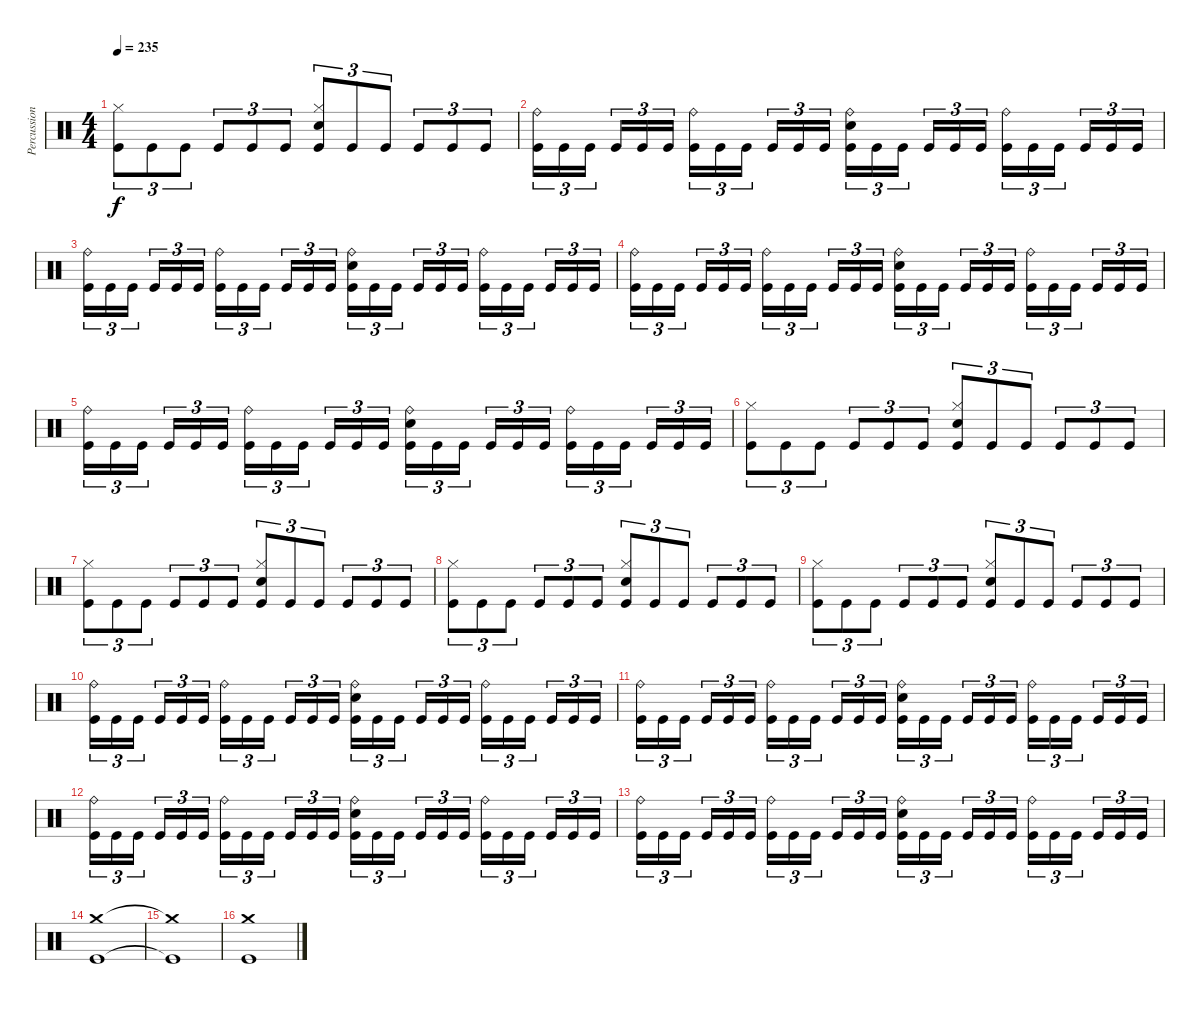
\track ("Percussion" "Percussion") {instrument percussion}
\staff {score}
\articulation defaults
\ts (4 4)
\tempo 235
\clef neutral
\ks c
("Kick (hit)" "Hi-Hat (closed)").8{tu (3 2) dy f} "Kick (hit)".8{tu (3 2)} "Kick (hit)".8{tu (3 2)} "Kick (hit)".8{tu (3 2)} "Kick (hit)".8{tu (3 2)} "Kick (hit)".8{tu (3 2)} ("Kick (hit)" "Hi-Hat (closed)" "Snare (hit) 2").8{tu (3 2)} "Kick (hit)".8{tu (3 2)} "Kick (hit)".8{tu (3 2)} "Kick (hit)".8{tu (3 2)} "Kick (hit)".8{tu (3 2)} "Kick (hit)".8{tu (3 2)} |
("Kick (hit)" "Ride (bell)").16{tu (3 2)} "Kick (hit)".16{tu (3 2)} "Kick (hit)".16{tu (3 2) beam splitsecondary} "Kick (hit)".16{tu (3 2)} "Kick (hit)".16{tu (3 2)} "Kick (hit)".16{tu (3 2)} ("Kick (hit)" "Ride (bell)").16{tu (3 2)} "Kick (hit)".16{tu (3 2)} "Kick (hit)".16{tu (3 2) beam splitsecondary} "Kick (hit)".16{tu (3 2)} "Kick (hit)".16{tu (3 2)} "Kick (hit)".16{tu (3 2)} ("Kick (hit)" "Ride (bell)" "Snare (hit) 2").16{tu (3 2)} "Kick (hit)".16{tu (3 2)} "Kick (hit)".16{tu (3 2) beam splitsecondary} "Kick (hit)".16{tu (3 2)} "Kick (hit)".16{tu (3 2)} "Kick (hit)".16{tu (3 2)} ("Kick (hit)" "Ride (bell)").16{tu (3 2)} "Kick (hit)".16{tu (3 2)} "Kick (hit)".16{tu (3 2) beam splitsecondary} "Kick (hit)".16{tu (3 2)} "Kick (hit)".16{tu (3 2)} "Kick (hit)".16{tu (3 2)} |
("Kick (hit)" "Ride (bell)").16{tu (3 2)} "Kick (hit)".16{tu (3 2)} "Kick (hit)".16{tu (3 2) beam splitsecondary} "Kick (hit)".16{tu (3 2)} "Kick (hit)".16{tu (3 2)} "Kick (hit)".16{tu (3 2)} ("Kick (hit)" "Ride (bell)").16{tu (3 2)} "Kick (hit)".16{tu (3 2)} "Kick (hit)".16{tu (3 2) beam splitsecondary} "Kick (hit)".16{tu (3 2)} "Kick (hit)".16{tu (3 2)} "Kick (hit)".16{tu (3 2)} ("Kick (hit)" "Ride (bell)" "Snare (hit) 2").16{tu (3 2)} "Kick (hit)".16{tu (3 2)} "Kick (hit)".16{tu (3 2) beam splitsecondary} "Kick (hit)".16{tu (3 2)} "Kick (hit)".16{tu (3 2)} "Kick (hit)".16{tu (3 2)} ("Kick (hit)" "Ride (bell)").16{tu (3 2)} "Kick (hit)".16{tu (3 2)} "Kick (hit)".16{tu (3 2) beam splitsecondary} "Kick (hit)".16{tu (3 2)} "Kick (hit)".16{tu (3 2)} "Kick (hit)".16{tu (3 2)} |
("Kick (hit)" "Ride (bell)").16{tu (3 2)} "Kick (hit)".16{tu (3 2)} "Kick (hit)".16{tu (3 2) beam splitsecondary} "Kick (hit)".16{tu (3 2)} "Kick (hit)".16{tu (3 2)} "Kick (hit)".16{tu (3 2)} ("Kick (hit)" "Ride (bell)").16{tu (3 2)} "Kick (hit)".16{tu (3 2)} "Kick (hit)".16{tu (3 2) beam splitsecondary} "Kick (hit)".16{tu (3 2)} "Kick (hit)".16{tu (3 2)} "Kick (hit)".16{tu (3 2)} ("Kick (hit)" "Ride (bell)" "Snare (hit) 2").16{tu (3 2)} "Kick (hit)".16{tu (3 2)} "Kick (hit)".16{tu (3 2) beam splitsecondary} "Kick (hit)".16{tu (3 2)} "Kick (hit)".16{tu (3 2)} "Kick (hit)".16{tu (3 2)} ("Kick (hit)" "Ride (bell)").16{tu (3 2)} "Kick (hit)".16{tu (3 2)} "Kick (hit)".16{tu (3 2) beam splitsecondary} "Kick (hit)".16{tu (3 2)} "Kick (hit)".16{tu (3 2)} "Kick (hit)".16{tu (3 2)} |
("Kick (hit)" "Ride (bell)").16{tu (3 2)} "Kick (hit)".16{tu (3 2)} "Kick (hit)".16{tu (3 2) beam splitsecondary} "Kick (hit)".16{tu (3 2)} "Kick (hit)".16{tu (3 2)} "Kick (hit)".16{tu (3 2)} ("Kick (hit)" "Ride (bell)").16{tu (3 2)} "Kick (hit)".16{tu (3 2)} "Kick (hit)".16{tu (3 2) beam splitsecondary} "Kick (hit)".16{tu (3 2)} "Kick (hit)".16{tu (3 2)} "Kick (hit)".16{tu (3 2)} ("Kick (hit)" "Ride (bell)" "Snare (hit) 2").16{tu (3 2)} "Kick (hit)".16{tu (3 2)} "Kick (hit)".16{tu (3 2) beam splitsecondary} "Kick (hit)".16{tu (3 2)} "Kick (hit)".16{tu (3 2)} "Kick (hit)".16{tu (3 2)} ("Kick (hit)" "Ride (bell)").16{tu (3 2)} "Kick (hit)".16{tu (3 2)} "Kick (hit)".16{tu (3 2) beam splitsecondary} "Kick (hit)".16{tu (3 2)} "Kick (hit)".16{tu (3 2)} "Kick (hit)".16{tu (3 2)} |
("Kick (hit)" "Hi-Hat (closed)").8{tu (3 2)} "Kick (hit)".8{tu (3 2)} "Kick (hit)".8{tu (3 2)} "Kick (hit)".8{tu (3 2)} "Kick (hit)".8{tu (3 2)} "Kick (hit)".8{tu (3 2)} ("Kick (hit)" "Hi-Hat (closed)" "Snare (hit) 2").8{tu (3 2)} "Kick (hit)".8{tu (3 2)} "Kick (hit)".8{tu (3 2)} "Kick (hit)".8{tu (3 2)} "Kick (hit)".8{tu (3 2)} "Kick (hit)".8{tu (3 2)} |
("Kick (hit)" "Hi-Hat (closed)").8{tu (3 2)} "Kick (hit)".8{tu (3 2)} "Kick (hit)".8{tu (3 2)} "Kick (hit)".8{tu (3 2)} "Kick (hit)".8{tu (3 2)} "Kick (hit)".8{tu (3 2)} ("Kick (hit)" "Hi-Hat (closed)" "Snare (hit) 2").8{tu (3 2)} "Kick (hit)".8{tu (3 2)} "Kick (hit)".8{tu (3 2)} "Kick (hit)".8{tu (3 2)} "Kick (hit)".8{tu (3 2)} "Kick (hit)".8{tu (3 2)} |
("Kick (hit)" "Hi-Hat (closed)").8{tu (3 2)} "Kick (hit)".8{tu (3 2)} "Kick (hit)".8{tu (3 2)} "Kick (hit)".8{tu (3 2)} "Kick (hit)".8{tu (3 2)} "Kick (hit)".8{tu (3 2)} ("Kick (hit)" "Hi-Hat (closed)" "Snare (hit) 2").8{tu (3 2)} "Kick (hit)".8{tu (3 2)} "Kick (hit)".8{tu (3 2)} "Kick (hit)".8{tu (3 2)} "Kick (hit)".8{tu (3 2)} "Kick (hit)".8{tu (3 2)} |
("Kick (hit)" "Hi-Hat (closed)").8{tu (3 2)} "Kick (hit)".8{tu (3 2)} "Kick (hit)".8{tu (3 2)} "Kick (hit)".8{tu (3 2)} "Kick (hit)".8{tu (3 2)} "Kick (hit)".8{tu (3 2)} ("Kick (hit)" "Hi-Hat (closed)" "Snare (hit) 2").8{tu (3 2)} "Kick (hit)".8{tu (3 2)} "Kick (hit)".8{tu (3 2)} "Kick (hit)".8{tu (3 2)} "Kick (hit)".8{tu (3 2)} "Kick (hit)".8{tu (3 2)} |
("Kick (hit)" "Ride (bell)").16{tu (3 2)} "Kick (hit)".16{tu (3 2)} "Kick (hit)".16{tu (3 2) beam splitsecondary} "Kick (hit)".16{tu (3 2)} "Kick (hit)".16{tu (3 2)} "Kick (hit)".16{tu (3 2)} ("Kick (hit)" "Ride (bell)").16{tu (3 2)} "Kick (hit)".16{tu (3 2)} "Kick (hit)".16{tu (3 2) beam splitsecondary} "Kick (hit)".16{tu (3 2)} "Kick (hit)".16{tu (3 2)} "Kick (hit)".16{tu (3 2)} ("Kick (hit)" "Ride (bell)" "Snare (hit) 2").16{tu (3 2)} "Kick (hit)".16{tu (3 2)} "Kick (hit)".16{tu (3 2) beam splitsecondary} "Kick (hit)".16{tu (3 2)} "Kick (hit)".16{tu (3 2)} "Kick (hit)".16{tu (3 2)} ("Kick (hit)" "Ride (bell)").16{tu (3 2)} "Kick (hit)".16{tu (3 2)} "Kick (hit)".16{tu (3 2) beam splitsecondary} "Kick (hit)".16{tu (3 2)} "Kick (hit)".16{tu (3 2)} "Kick (hit)".16{tu (3 2)} |
("Kick (hit)" "Ride (bell)").16{tu (3 2)} "Kick (hit)".16{tu (3 2)} "Kick (hit)".16{tu (3 2) beam splitsecondary} "Kick (hit)".16{tu (3 2)} "Kick (hit)".16{tu (3 2)} "Kick (hit)".16{tu (3 2)} ("Kick (hit)" "Ride (bell)").16{tu (3 2)} "Kick (hit)".16{tu (3 2)} "Kick (hit)".16{tu (3 2) beam splitsecondary} "Kick (hit)".16{tu (3 2)} "Kick (hit)".16{tu (3 2)} "Kick (hit)".16{tu (3 2)} ("Kick (hit)" "Ride (bell)" "Snare (hit) 2").16{tu (3 2)} "Kick (hit)".16{tu (3 2)} "Kick (hit)".16{tu (3 2) beam splitsecondary} "Kick (hit)".16{tu (3 2)} "Kick (hit)".16{tu (3 2)} "Kick (hit)".16{tu (3 2)} ("Kick (hit)" "Ride (bell)").16{tu (3 2)} "Kick (hit)".16{tu (3 2)} "Kick (hit)".16{tu (3 2) beam splitsecondary} "Kick (hit)".16{tu (3 2)} "Kick (hit)".16{tu (3 2)} "Kick (hit)".16{tu (3 2)} |
("Kick (hit)" "Ride (bell)").16{tu (3 2)} "Kick (hit)".16{tu (3 2)} "Kick (hit)".16{tu (3 2) beam splitsecondary} "Kick (hit)".16{tu (3 2)} "Kick (hit)".16{tu (3 2)} "Kick (hit)".16{tu (3 2)} ("Kick (hit)" "Ride (bell)").16{tu (3 2)} "Kick (hit)".16{tu (3 2)} "Kick (hit)".16{tu (3 2) beam splitsecondary} "Kick (hit)".16{tu (3 2)} "Kick (hit)".16{tu (3 2)} "Kick (hit)".16{tu (3 2)} ("Kick (hit)" "Ride (bell)" "Snare (hit) 2").16{tu (3 2)} "Kick (hit)".16{tu (3 2)} "Kick (hit)".16{tu (3 2) beam splitsecondary} "Kick (hit)".16{tu (3 2)} "Kick (hit)".16{tu (3 2)} "Kick (hit)".16{tu (3 2)} ("Kick (hit)" "Ride (bell)").16{tu (3 2)} "Kick (hit)".16{tu (3 2)} "Kick (hit)".16{tu (3 2) beam splitsecondary} "Kick (hit)".16{tu (3 2)} "Kick (hit)".16{tu (3 2)} "Kick (hit)".16{tu (3 2)} |
("Kick (hit)" "Ride (bell)").16{tu (3 2)} "Kick (hit)".16{tu (3 2)} "Kick (hit)".16{tu (3 2) beam splitsecondary} "Kick (hit)".16{tu (3 2)} "Kick (hit)".16{tu (3 2)} "Kick (hit)".16{tu (3 2)} ("Kick (hit)" "Ride (bell)").16{tu (3 2)} "Kick (hit)".16{tu (3 2)} "Kick (hit)".16{tu (3 2) beam splitsecondary} "Kick (hit)".16{tu (3 2)} "Kick (hit)".16{tu (3 2)} "Kick (hit)".16{tu (3 2)} ("Kick (hit)" "Ride (bell)" "Snare (hit) 2").16{tu (3 2)} "Kick (hit)".16{tu (3 2)} "Kick (hit)".16{tu (3 2) beam splitsecondary} "Kick (hit)".16{tu (3 2)} "Kick (hit)".16{tu (3 2)} "Kick (hit)".16{tu (3 2)} ("Kick (hit)" "Ride (bell)").16{tu (3 2)} "Kick (hit)".16{tu (3 2)} "Kick (hit)".16{tu (3 2) beam splitsecondary} "Kick (hit)".16{tu (3 2)} "Kick (hit)".16{tu (3 2)} "Kick (hit)".16{tu (3 2)} |
("Kick (hit)" "Crash medium (hit)").1 |
("Kick (hit)"{t} "Crash medium (hit)"{t}).1 |
("Kick (hit)" "Crash medium (hit)").1
